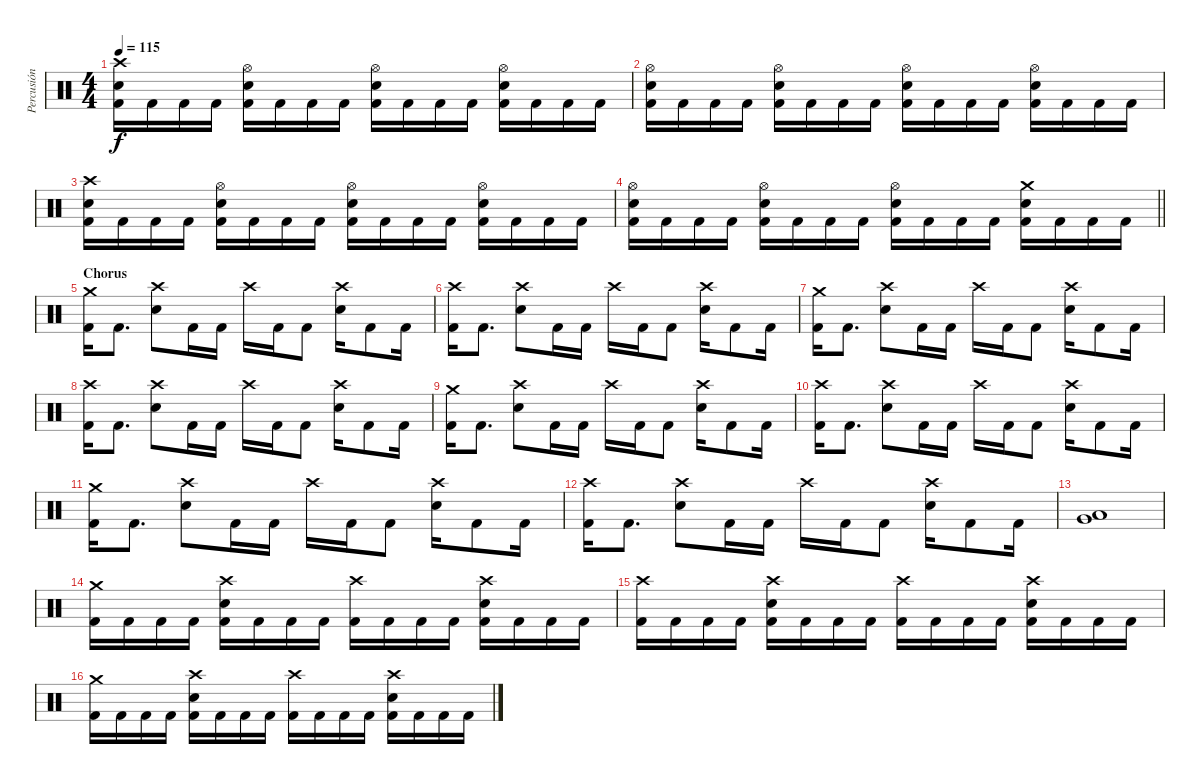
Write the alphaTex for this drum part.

\track ("Percusión" "Percusión") {instrument percussion}
\staff {score}
\articulation defaults
\ts (4 4)
\tempo 115
\clef neutral
\ks c
("Crash high (hit)" "Snare (hit) 2" "Kick (hit) 2").16{dy f} "Kick (hit) 2".16 "Kick (hit) 2".16 "Kick (hit) 2".16 ("Hi-Hat (open)" "Snare (hit) 2" "Kick (hit) 2").16 "Kick (hit) 2".16 "Kick (hit) 2".16 "Kick (hit) 2".16 ("Hi-Hat (open)" "Snare (hit) 2" "Kick (hit) 2").16 "Kick (hit) 2".16 "Kick (hit) 2".16 "Kick (hit) 2".16 ("Hi-Hat (open)" "Snare (hit) 2" "Kick (hit) 2").16 "Kick (hit) 2".16 "Kick (hit) 2".16 "Kick (hit) 2".16 |
("Hi-Hat (open)" "Snare (hit) 2" "Kick (hit) 2").16 "Kick (hit) 2".16 "Kick (hit) 2".16 "Kick (hit) 2".16 ("Hi-Hat (open)" "Snare (hit) 2" "Kick (hit) 2").16 "Kick (hit) 2".16 "Kick (hit) 2".16 "Kick (hit) 2".16 ("Hi-Hat (open)" "Snare (hit) 2" "Kick (hit) 2").16 "Kick (hit) 2".16 "Kick (hit) 2".16 "Kick (hit) 2".16 ("Hi-Hat (open)" "Snare (hit) 2" "Kick (hit) 2").16 "Kick (hit) 2".16 "Kick (hit) 2".16 "Kick (hit) 2".16 |
("Crash high (hit)" "Snare (hit) 2" "Kick (hit) 2").16 "Kick (hit) 2".16 "Kick (hit) 2".16 "Kick (hit) 2".16 ("Hi-Hat (open)" "Snare (hit) 2" "Kick (hit) 2").16 "Kick (hit) 2".16 "Kick (hit) 2".16 "Kick (hit) 2".16 ("Hi-Hat (open)" "Snare (hit) 2" "Kick (hit) 2").16 "Kick (hit) 2".16 "Kick (hit) 2".16 "Kick (hit) 2".16 ("Hi-Hat (open)" "Snare (hit) 2" "Kick (hit) 2").16 "Kick (hit) 2".16 "Kick (hit) 2".16 "Kick (hit) 2".16 |
\barLineRight lightlight
("Hi-Hat (open)" "Snare (hit) 2" "Kick (hit) 2").16 "Kick (hit) 2".16 "Kick (hit) 2".16 "Kick (hit) 2".16 ("Hi-Hat (open)" "Snare (hit) 2" "Kick (hit) 2").16 "Kick (hit) 2".16 "Kick (hit) 2".16 "Kick (hit) 2".16 ("Hi-Hat (open)" "Snare (hit) 2" "Kick (hit) 2").16 "Kick (hit) 2".16 "Kick (hit) 2".16 "Kick (hit) 2".16 ("Crash medium (hit)" "Snare (hit) 2" "Kick (hit) 2").16 "Kick (hit) 2".16 "Kick (hit) 2".16 "Kick (hit) 2".16 |
\section ("" "Chorus")
("Crash medium (hit)" "Kick (hit) 2").16 "Kick (hit) 2".8{d} ("Crash high (hit)" "Snare (hit) 2").8 "Kick (hit) 2".16 "Kick (hit) 2".16 "Crash high (hit)".16 "Kick (hit) 2".16 "Kick (hit) 2".8 ("Crash high (hit)" "Snare (hit) 2").16 "Kick (hit) 2".8 "Kick (hit) 2".16 |
("Crash high (hit)" "Kick (hit) 2").16 "Kick (hit) 2".8{d} ("Crash high (hit)" "Snare (hit) 2").8 "Kick (hit) 2".16 "Kick (hit) 2".16 "Crash high (hit)".16 "Kick (hit) 2".16 "Kick (hit) 2".8 ("Crash high (hit)" "Snare (hit) 2").16 "Kick (hit) 2".8 "Kick (hit) 2".16 |
("Crash medium (hit)" "Kick (hit) 2").16 "Kick (hit) 2".8{d} ("Crash high (hit)" "Snare (hit) 2").8 "Kick (hit) 2".16 "Kick (hit) 2".16 "Crash high (hit)".16 "Kick (hit) 2".16 "Kick (hit) 2".8 ("Crash high (hit)" "Snare (hit) 2").16 "Kick (hit) 2".8 "Kick (hit) 2".16 |
("Crash high (hit)" "Kick (hit) 2").16 "Kick (hit) 2".8{d} ("Crash high (hit)" "Snare (hit) 2").8 "Kick (hit) 2".16 "Kick (hit) 2".16 "Crash high (hit)".16 "Kick (hit) 2".16 "Kick (hit) 2".8 ("Crash high (hit)" "Snare (hit) 2").16 "Kick (hit) 2".8 "Kick (hit) 2".16 |
("Crash medium (hit)" "Kick (hit) 2").16 "Kick (hit) 2".8{d} ("Crash high (hit)" "Snare (hit) 2").8 "Kick (hit) 2".16 "Kick (hit) 2".16 "Crash high (hit)".16 "Kick (hit) 2".16 "Kick (hit) 2".8 ("Crash high (hit)" "Snare (hit) 2").16 "Kick (hit) 2".8 "Kick (hit) 2".16 |
("Crash high (hit)" "Kick (hit) 2").16 "Kick (hit) 2".8{d} ("Crash high (hit)" "Snare (hit) 2").8 "Kick (hit) 2".16 "Kick (hit) 2".16 "Crash high (hit)".16 "Kick (hit) 2".16 "Kick (hit) 2".8 ("Crash high (hit)" "Snare (hit) 2").16 "Kick (hit) 2".8 "Kick (hit) 2".16 |
("Crash medium (hit)" "Kick (hit) 2").16 "Kick (hit) 2".8{d} ("Crash high (hit)" "Snare (hit) 2").8 "Kick (hit) 2".16 "Kick (hit) 2".16 "Crash high (hit)".16 "Kick (hit) 2".16 "Kick (hit) 2".8 ("Crash high (hit)" "Snare (hit) 2").16 "Kick (hit) 2".8 "Kick (hit) 2".16 |
("Crash high (hit)" "Kick (hit) 2").16 "Kick (hit) 2".8{d} ("Crash high (hit)" "Snare (hit) 2").8 "Kick (hit) 2".16 "Kick (hit) 2".16 "Crash high (hit)".16 "Kick (hit) 2".16 "Kick (hit) 2".8 ("Crash high (hit)" "Snare (hit) 2").16 "Kick (hit) 2".8 "Kick (hit) 2".16 |
("Low Tom (hit)" "Very Low Tom (hit)").1 |
("Crash medium (hit)" "Kick (hit) 2").16 "Kick (hit) 2".16 "Kick (hit) 2".16 "Kick (hit) 2".16 ("Crash high (hit)" "Snare (hit) 2" "Kick (hit) 2").16 "Kick (hit) 2".16 "Kick (hit) 2".16 "Kick (hit) 2".16 ("Crash high (hit)" "Kick (hit) 2").16 "Kick (hit) 2".16 "Kick (hit) 2".16 "Kick (hit) 2".16 ("Crash high (hit)" "Snare (hit) 2" "Kick (hit) 2").16 "Kick (hit) 2".16 "Kick (hit) 2".16 "Kick (hit) 2".16 |
("Crash high (hit)" "Kick (hit) 2").16 "Kick (hit) 2".16 "Kick (hit) 2".16 "Kick (hit) 2".16 ("Crash high (hit)" "Snare (hit) 2" "Kick (hit) 2").16 "Kick (hit) 2".16 "Kick (hit) 2".16 "Kick (hit) 2".16 ("Crash high (hit)" "Kick (hit) 2").16 "Kick (hit) 2".16 "Kick (hit) 2".16 "Kick (hit) 2".16 ("Crash high (hit)" "Snare (hit) 2" "Kick (hit) 2").16 "Kick (hit) 2".16 "Kick (hit) 2".16 "Kick (hit) 2".16 |
("Crash medium (hit)" "Kick (hit) 2").16 "Kick (hit) 2".16 "Kick (hit) 2".16 "Kick (hit) 2".16 ("Crash high (hit)" "Snare (hit) 2" "Kick (hit) 2").16 "Kick (hit) 2".16 "Kick (hit) 2".16 "Kick (hit) 2".16 ("Crash high (hit)" "Kick (hit) 2").16 "Kick (hit) 2".16 "Kick (hit) 2".16 "Kick (hit) 2".16 ("Crash high (hit)" "Snare (hit) 2" "Kick (hit) 2").16 "Kick (hit) 2".16 "Kick (hit) 2".16 "Kick (hit) 2".16
